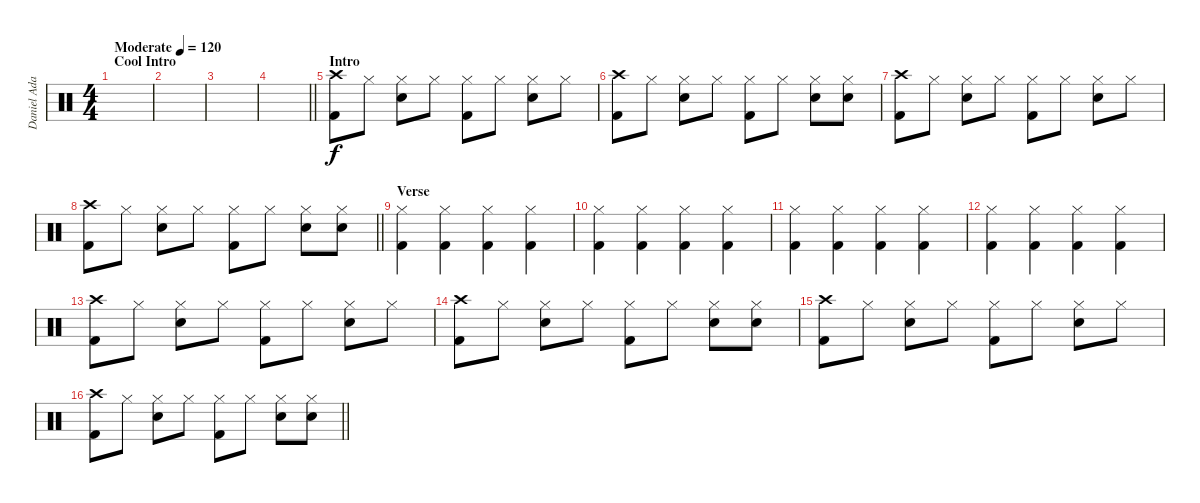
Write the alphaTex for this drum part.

\track ("Daniel Adair" "Daniel Ada") {instrument percussion}
\staff {score}
\articulation defaults
\ts (4 4)
\section ("" "Cool Intro")
\tempo (120 "Moderate")
\clef neutral
\ks c
|
|
|
\barLineRight lightlight
|
\section ("" "Intro")
("Crash high (hit)" "Kick (hit) 2").8 "Hi-Hat (closed)".8 ("Hi-Hat (closed)" "Electric Snare (hit)").8 "Hi-Hat (closed)".8 ("Hi-Hat (closed)" "Kick (hit) 2").8 "Hi-Hat (closed)".8 ("Hi-Hat (closed)" "Electric Snare (hit)").8 "Hi-Hat (closed)".8 |
("Crash high (hit)" "Kick (hit) 2").8 "Hi-Hat (closed)".8 ("Hi-Hat (closed)" "Electric Snare (hit)").8 "Hi-Hat (closed)".8 ("Hi-Hat (closed)" "Kick (hit) 2").8 "Hi-Hat (closed)".8 ("Hi-Hat (closed)" "Electric Snare (hit)").8 ("Hi-Hat (closed)" "Electric Snare (hit)").8 |
("Crash high (hit)" "Kick (hit) 2").8 "Hi-Hat (closed)".8 ("Hi-Hat (closed)" "Electric Snare (hit)").8 "Hi-Hat (closed)".8 ("Hi-Hat (closed)" "Kick (hit) 2").8 "Hi-Hat (closed)".8 ("Hi-Hat (closed)" "Electric Snare (hit)").8 "Hi-Hat (closed)".8 |
\barLineRight lightlight
("Crash high (hit)" "Kick (hit) 2").8 "Hi-Hat (closed)".8 ("Hi-Hat (closed)" "Electric Snare (hit)").8 "Hi-Hat (closed)".8 ("Hi-Hat (closed)" "Kick (hit) 2").8 "Hi-Hat (closed)".8 ("Hi-Hat (closed)" "Electric Snare (hit)").8 ("Hi-Hat (closed)" "Electric Snare (hit)").8 |
\section ("" "Verse")
("Hi-Hat (closed)" "Kick (hit) 2").4 ("Hi-Hat (closed)" "Kick (hit) 2").4 ("Hi-Hat (closed)" "Kick (hit) 2").4 ("Hi-Hat (closed)" "Kick (hit) 2").4 |
("Hi-Hat (closed)" "Kick (hit) 2").4 ("Hi-Hat (closed)" "Kick (hit) 2").4 ("Hi-Hat (closed)" "Kick (hit) 2").4 ("Hi-Hat (closed)" "Kick (hit) 2").4 |
("Hi-Hat (closed)" "Kick (hit) 2").4 ("Hi-Hat (closed)" "Kick (hit) 2").4 ("Hi-Hat (closed)" "Kick (hit) 2").4 ("Hi-Hat (closed)" "Kick (hit) 2").4 |
("Hi-Hat (closed)" "Kick (hit) 2").4 ("Hi-Hat (closed)" "Kick (hit) 2").4 ("Hi-Hat (closed)" "Kick (hit) 2").4 ("Hi-Hat (closed)" "Kick (hit) 2").4 |
("Crash high (hit)" "Kick (hit) 2").8 "Hi-Hat (closed)".8 ("Hi-Hat (closed)" "Electric Snare (hit)").8 "Hi-Hat (closed)".8 ("Hi-Hat (closed)" "Kick (hit) 2").8 "Hi-Hat (closed)".8 ("Hi-Hat (closed)" "Electric Snare (hit)").8 "Hi-Hat (closed)".8 |
("Crash high (hit)" "Kick (hit) 2").8 "Hi-Hat (closed)".8 ("Hi-Hat (closed)" "Electric Snare (hit)").8 "Hi-Hat (closed)".8 ("Hi-Hat (closed)" "Kick (hit) 2").8 "Hi-Hat (closed)".8 ("Hi-Hat (closed)" "Electric Snare (hit)").8 ("Hi-Hat (closed)" "Electric Snare (hit)").8 |
("Crash high (hit)" "Kick (hit) 2").8 "Hi-Hat (closed)".8 ("Hi-Hat (closed)" "Electric Snare (hit)").8 "Hi-Hat (closed)".8 ("Hi-Hat (closed)" "Kick (hit) 2").8 "Hi-Hat (closed)".8 ("Hi-Hat (closed)" "Electric Snare (hit)").8 "Hi-Hat (closed)".8 |
\barLineRight lightlight
("Crash high (hit)" "Kick (hit) 2").8 "Hi-Hat (closed)".8 ("Hi-Hat (closed)" "Electric Snare (hit)").8 "Hi-Hat (closed)".8 ("Hi-Hat (closed)" "Kick (hit) 2").8 "Hi-Hat (closed)".8 ("Hi-Hat (closed)" "Electric Snare (hit)").8 ("Hi-Hat (closed)" "Electric Snare (hit)").8
